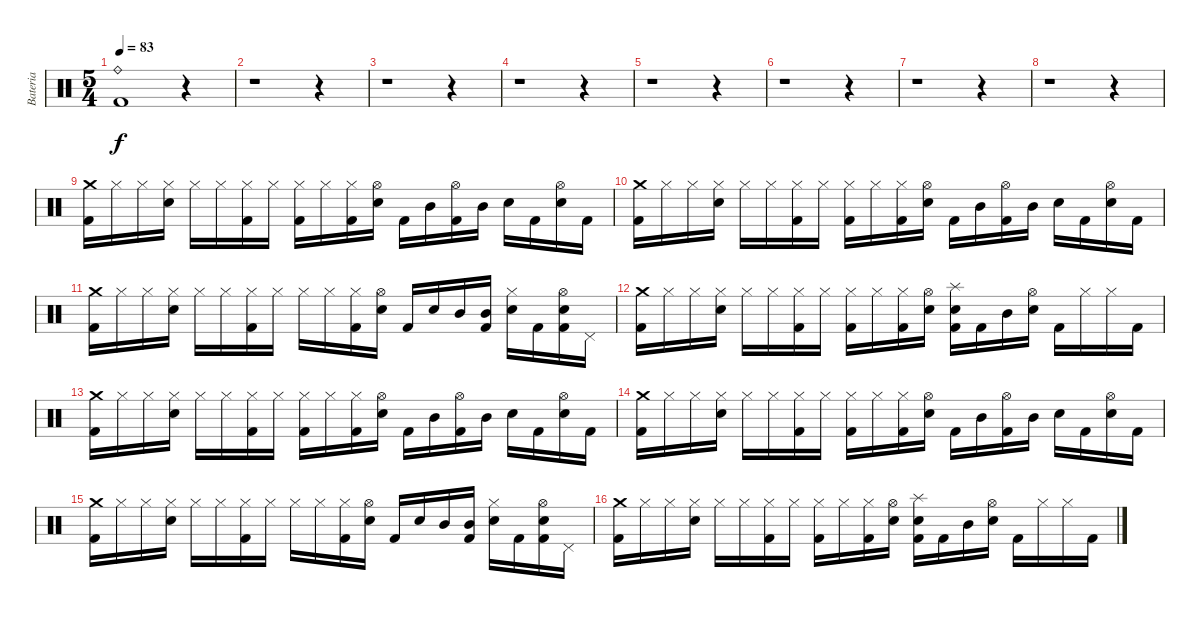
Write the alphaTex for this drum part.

\track ("Bateria" "Bateria") {instrument percussion}
\staff {score}
\articulation defaults
\ts (5 4)
\tempo 83
\clef neutral
\ks c
("Ride (bell)" "Kick (hit) 2").1{dy f} r.4 |
r.1 r.4 |
r.1 r.4 |
r.1 r.4 |
r.1 r.4 |
r.1 r.4 |
r.1 r.4 |
r.1 r.4 |
("Crash medium (hit)" "Kick (hit) 2").16 "Hi-Hat (closed)".16 "Hi-Hat (closed)".16 ("Hi-Hat (closed)" "Snare (hit) 2").16 "Hi-Hat (closed)".16 "Hi-Hat (closed)".16 ("Hi-Hat (closed)" "Kick (hit) 2").16 "Hi-Hat (closed)".16 ("Hi-Hat (closed)" "Kick (hit) 2").16 "Hi-Hat (closed)".16 ("Hi-Hat (closed)" "Kick (hit) 2").16 ("Hi-Hat (open)" "Snare (hit) 2").16 "Kick (hit) 2".16 "Mid Tom (hit)".16 ("Hi-Hat (open)" "Kick (hit) 2").16 "Mid Tom (hit)".16 "Snare (hit) 2".16 "Kick (hit) 2".16 ("Hi-Hat (open)" "Snare (hit) 2").16 "Kick (hit) 2".16 |
("Crash medium (hit)" "Kick (hit) 2").16 "Hi-Hat (closed)".16 "Hi-Hat (closed)".16 ("Hi-Hat (closed)" "Snare (hit) 2").16 "Hi-Hat (closed)".16 "Hi-Hat (closed)".16 ("Hi-Hat (closed)" "Kick (hit) 2").16 "Hi-Hat (closed)".16 ("Hi-Hat (closed)" "Kick (hit) 2").16 "Hi-Hat (closed)".16 ("Hi-Hat (closed)" "Kick (hit) 2").16 ("Hi-Hat (open)" "Snare (hit) 2").16 "Kick (hit) 2".16 "Mid Tom (hit)".16 ("Hi-Hat (open)" "Kick (hit) 2").16 "Mid Tom (hit)".16 "Snare (hit) 2".16 "Kick (hit) 2".16 ("Hi-Hat (open)" "Snare (hit) 2").16 "Kick (hit) 2".16 |
("Crash medium (hit)" "Kick (hit) 2").16 "Hi-Hat (closed)".16 "Hi-Hat (closed)".16 ("Hi-Hat (closed)" "Snare (hit) 2").16 "Hi-Hat (closed)".16 "Hi-Hat (closed)".16 ("Hi-Hat (closed)" "Kick (hit) 2").16 "Hi-Hat (closed)".16 "Hi-Hat (closed)".16 "Hi-Hat (closed)".16 ("Hi-Hat (closed)" "Kick (hit) 2").16 ("Hi-Hat (open)" "Snare (hit) 2").16 "Kick (hit) 2".16 "Snare (hit) 2".16 "Mid Tom (hit)".16 ("Mid Tom (hit)" "Kick (hit) 2").16 ("Hi-Hat (closed)" "Snare (hit) 2").16 "Kick (hit) 2".16 ("Hi-Hat (open)" "Snare (hit) 2" "Kick (hit) 2").16 "Pedal Hi-Hat (hit)".16 |
("Crash medium (hit)" "Kick (hit) 2").16 "Hi-Hat (closed)".16 "Hi-Hat (closed)".16 ("Hi-Hat (closed)" "Snare (hit) 2").16 "Hi-Hat (closed)".16 "Hi-Hat (closed)".16 ("Hi-Hat (closed)" "Kick (hit) 2").16 "Hi-Hat (closed)".16 ("Hi-Hat (closed)" "Kick (hit) 2").16 "Hi-Hat (closed)".16 ("Hi-Hat (closed)" "Kick (hit) 2").16 ("Hi-Hat (open)" "Snare (hit) 2").16 ("Splash (hit)" "Snare (hit) 2" "Kick (hit) 2").16 "Kick (hit) 2".16 "Mid Tom (hit)".16 ("Hi-Hat (open)" "Snare (hit) 2").16 "Kick (hit) 2".16 "Hi-Hat (closed)".16 "Hi-Hat (closed)".16 "Kick (hit) 2".16 |
("Crash medium (hit)" "Kick (hit) 2").16 "Hi-Hat (closed)".16 "Hi-Hat (closed)".16 ("Hi-Hat (closed)" "Snare (hit) 2").16 "Hi-Hat (closed)".16 "Hi-Hat (closed)".16 ("Hi-Hat (closed)" "Kick (hit) 2").16 "Hi-Hat (closed)".16 ("Hi-Hat (closed)" "Kick (hit) 2").16 "Hi-Hat (closed)".16 ("Hi-Hat (closed)" "Kick (hit) 2").16 ("Hi-Hat (open)" "Snare (hit) 2").16 "Kick (hit) 2".16 "Mid Tom (hit)".16 ("Hi-Hat (open)" "Kick (hit) 2").16 "Mid Tom (hit)".16 "Snare (hit) 2".16 "Kick (hit) 2".16 ("Hi-Hat (open)" "Snare (hit) 2").16 "Kick (hit) 2".16 |
("Crash medium (hit)" "Kick (hit) 2").16 "Hi-Hat (closed)".16 "Hi-Hat (closed)".16 ("Hi-Hat (closed)" "Snare (hit) 2").16 "Hi-Hat (closed)".16 "Hi-Hat (closed)".16 ("Hi-Hat (closed)" "Kick (hit) 2").16 "Hi-Hat (closed)".16 ("Hi-Hat (closed)" "Kick (hit) 2").16 "Hi-Hat (closed)".16 ("Hi-Hat (closed)" "Kick (hit) 2").16 ("Hi-Hat (open)" "Snare (hit) 2").16 "Kick (hit) 2".16 "Mid Tom (hit)".16 ("Hi-Hat (open)" "Kick (hit) 2").16 "Mid Tom (hit)".16 "Snare (hit) 2".16 "Kick (hit) 2".16 ("Hi-Hat (open)" "Snare (hit) 2").16 "Kick (hit) 2".16 |
("Crash medium (hit)" "Kick (hit) 2").16 "Hi-Hat (closed)".16 "Hi-Hat (closed)".16 ("Hi-Hat (closed)" "Snare (hit) 2").16 "Hi-Hat (closed)".16 "Hi-Hat (closed)".16 ("Hi-Hat (closed)" "Kick (hit) 2").16 "Hi-Hat (closed)".16 "Hi-Hat (closed)".16 "Hi-Hat (closed)".16 ("Hi-Hat (closed)" "Kick (hit) 2").16 ("Hi-Hat (open)" "Snare (hit) 2").16 "Kick (hit) 2".16 "Snare (hit) 2".16 "Mid Tom (hit)".16 ("Mid Tom (hit)" "Kick (hit) 2").16 ("Hi-Hat (closed)" "Snare (hit) 2").16 "Kick (hit) 2".16 ("Hi-Hat (open)" "Snare (hit) 2" "Kick (hit) 2").16 "Pedal Hi-Hat (hit)".16 |
("Crash medium (hit)" "Kick (hit) 2").16 "Hi-Hat (closed)".16 "Hi-Hat (closed)".16 ("Hi-Hat (closed)" "Snare (hit) 2").16 "Hi-Hat (closed)".16 "Hi-Hat (closed)".16 ("Hi-Hat (closed)" "Kick (hit) 2").16 "Hi-Hat (closed)".16 ("Hi-Hat (closed)" "Kick (hit) 2").16 "Hi-Hat (closed)".16 ("Hi-Hat (closed)" "Kick (hit) 2").16 ("Hi-Hat (open)" "Snare (hit) 2").16 ("Splash (hit)" "Snare (hit) 2" "Kick (hit) 2").16 "Kick (hit) 2".16 "Mid Tom (hit)".16 ("Hi-Hat (open)" "Snare (hit) 2").16 "Kick (hit) 2".16 "Hi-Hat (closed)".16 "Hi-Hat (closed)".16 "Kick (hit) 2".16
